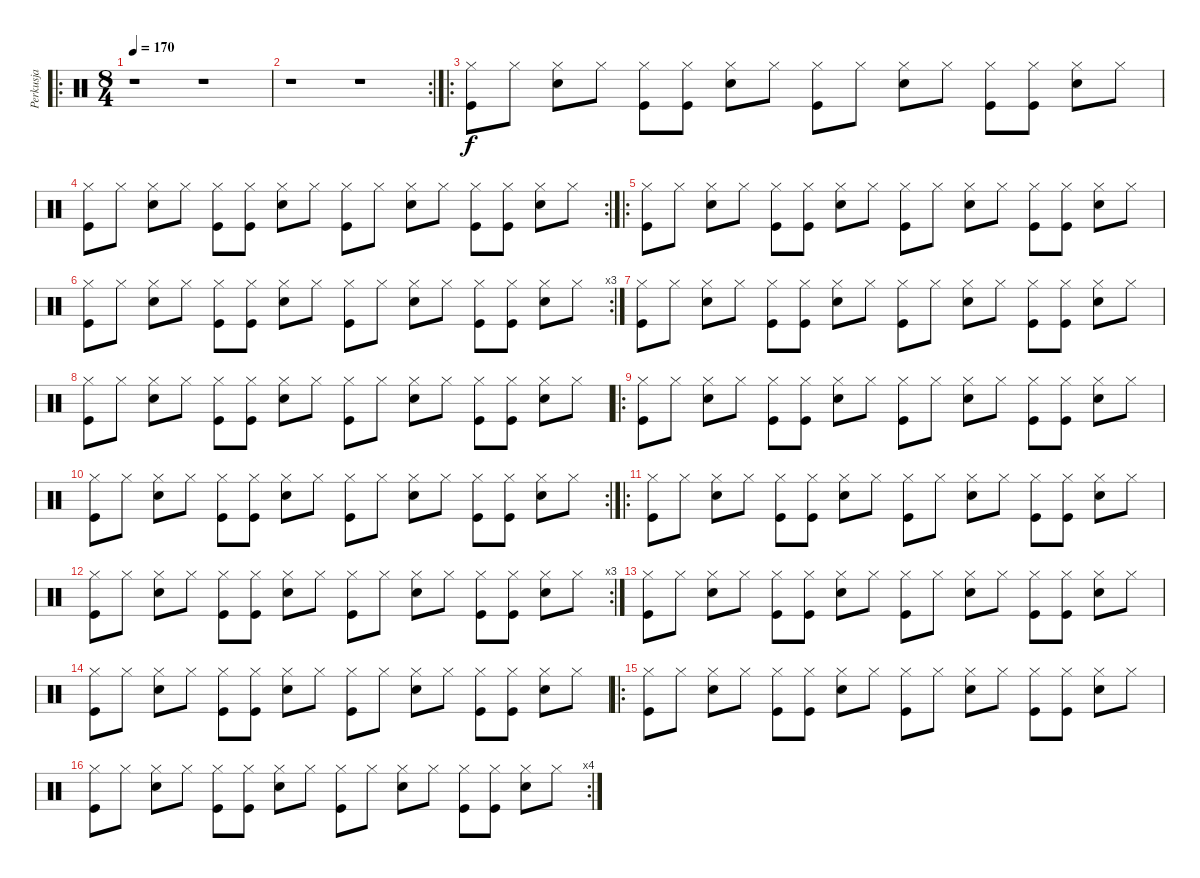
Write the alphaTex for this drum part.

\track ("Perkusja" "Perkusja") {instrument percussion}
\staff {score}
\articulation defaults
\ro
\ts (8 4)
\tempo 170
\clef neutral
\ks c
r.1{dy f} r.1 |
\rc 2
r.1 r.1 |
\ro
("Kick (hit)" "Hi-Hat (closed)").8 "Hi-Hat (closed)".8 ("Electric Snare (hit)" "Hi-Hat (closed)").8 "Hi-Hat (closed)".8 ("Kick (hit)" "Hi-Hat (closed)").8 ("Kick (hit)" "Hi-Hat (closed)").8 ("Electric Snare (hit)" "Hi-Hat (closed)").8 "Hi-Hat (closed)".8 ("Kick (hit)" "Hi-Hat (closed)").8 "Hi-Hat (closed)".8 ("Electric Snare (hit)" "Hi-Hat (closed)").8 "Hi-Hat (closed)".8 ("Kick (hit)" "Hi-Hat (closed)").8 ("Kick (hit)" "Hi-Hat (closed)").8 ("Electric Snare (hit)" "Hi-Hat (closed)").8 "Hi-Hat (closed)".8 |
\rc 2
("Kick (hit)" "Hi-Hat (closed)").8 "Hi-Hat (closed)".8 ("Electric Snare (hit)" "Hi-Hat (closed)").8 "Hi-Hat (closed)".8 ("Kick (hit)" "Hi-Hat (closed)").8 ("Kick (hit)" "Hi-Hat (closed)").8 ("Electric Snare (hit)" "Hi-Hat (closed)").8 "Hi-Hat (closed)".8 ("Kick (hit)" "Hi-Hat (closed)").8 "Hi-Hat (closed)".8 ("Electric Snare (hit)" "Hi-Hat (closed)").8 "Hi-Hat (closed)".8 ("Kick (hit)" "Hi-Hat (closed)").8 ("Kick (hit)" "Hi-Hat (closed)").8 ("Electric Snare (hit)" "Hi-Hat (closed)").8 "Hi-Hat (closed)".8 |
\ro
("Kick (hit)" "Hi-Hat (closed)").8 "Hi-Hat (closed)".8 ("Electric Snare (hit)" "Hi-Hat (closed)").8 "Hi-Hat (closed)".8 ("Kick (hit)" "Hi-Hat (closed)").8 ("Kick (hit)" "Hi-Hat (closed)").8 ("Electric Snare (hit)" "Hi-Hat (closed)").8 "Hi-Hat (closed)".8 ("Kick (hit)" "Hi-Hat (closed)").8 "Hi-Hat (closed)".8 ("Electric Snare (hit)" "Hi-Hat (closed)").8 "Hi-Hat (closed)".8 ("Kick (hit)" "Hi-Hat (closed)").8 ("Kick (hit)" "Hi-Hat (closed)").8 ("Electric Snare (hit)" "Hi-Hat (closed)").8 "Hi-Hat (closed)".8 |
\rc 3
("Kick (hit)" "Hi-Hat (closed)").8 "Hi-Hat (closed)".8 ("Electric Snare (hit)" "Hi-Hat (closed)").8 "Hi-Hat (closed)".8 ("Kick (hit)" "Hi-Hat (closed)").8 ("Kick (hit)" "Hi-Hat (closed)").8 ("Electric Snare (hit)" "Hi-Hat (closed)").8 "Hi-Hat (closed)".8 ("Kick (hit)" "Hi-Hat (closed)").8 "Hi-Hat (closed)".8 ("Electric Snare (hit)" "Hi-Hat (closed)").8 "Hi-Hat (closed)".8 ("Kick (hit)" "Hi-Hat (closed)").8 ("Kick (hit)" "Hi-Hat (closed)").8 ("Electric Snare (hit)" "Hi-Hat (closed)").8 "Hi-Hat (closed)".8 |
("Kick (hit)" "Hi-Hat (closed)").8 "Hi-Hat (closed)".8 ("Electric Snare (hit)" "Hi-Hat (closed)").8 "Hi-Hat (closed)".8 ("Kick (hit)" "Hi-Hat (closed)").8 ("Kick (hit)" "Hi-Hat (closed)").8 ("Electric Snare (hit)" "Hi-Hat (closed)").8 "Hi-Hat (closed)".8 ("Kick (hit)" "Hi-Hat (closed)").8 "Hi-Hat (closed)".8 ("Electric Snare (hit)" "Hi-Hat (closed)").8 "Hi-Hat (closed)".8 ("Kick (hit)" "Hi-Hat (closed)").8 ("Kick (hit)" "Hi-Hat (closed)").8 ("Electric Snare (hit)" "Hi-Hat (closed)").8 "Hi-Hat (closed)".8 |
("Kick (hit)" "Hi-Hat (closed)").8 "Hi-Hat (closed)".8 ("Electric Snare (hit)" "Hi-Hat (closed)").8 "Hi-Hat (closed)".8 ("Kick (hit)" "Hi-Hat (closed)").8 ("Kick (hit)" "Hi-Hat (closed)").8 ("Electric Snare (hit)" "Hi-Hat (closed)").8 "Hi-Hat (closed)".8 ("Kick (hit)" "Hi-Hat (closed)").8 "Hi-Hat (closed)".8 ("Electric Snare (hit)" "Hi-Hat (closed)").8 "Hi-Hat (closed)".8 ("Kick (hit)" "Hi-Hat (closed)").8 ("Kick (hit)" "Hi-Hat (closed)").8 ("Electric Snare (hit)" "Hi-Hat (closed)").8 "Hi-Hat (closed)".8 |
\ro
("Kick (hit)" "Hi-Hat (closed)").8 "Hi-Hat (closed)".8 ("Electric Snare (hit)" "Hi-Hat (closed)").8 "Hi-Hat (closed)".8 ("Kick (hit)" "Hi-Hat (closed)").8 ("Kick (hit)" "Hi-Hat (closed)").8 ("Electric Snare (hit)" "Hi-Hat (closed)").8 "Hi-Hat (closed)".8 ("Kick (hit)" "Hi-Hat (closed)").8 "Hi-Hat (closed)".8 ("Electric Snare (hit)" "Hi-Hat (closed)").8 "Hi-Hat (closed)".8 ("Kick (hit)" "Hi-Hat (closed)").8 ("Kick (hit)" "Hi-Hat (closed)").8 ("Electric Snare (hit)" "Hi-Hat (closed)").8 "Hi-Hat (closed)".8 |
\rc 2
("Kick (hit)" "Hi-Hat (closed)").8 "Hi-Hat (closed)".8 ("Electric Snare (hit)" "Hi-Hat (closed)").8 "Hi-Hat (closed)".8 ("Kick (hit)" "Hi-Hat (closed)").8 ("Kick (hit)" "Hi-Hat (closed)").8 ("Electric Snare (hit)" "Hi-Hat (closed)").8 "Hi-Hat (closed)".8 ("Kick (hit)" "Hi-Hat (closed)").8 "Hi-Hat (closed)".8 ("Electric Snare (hit)" "Hi-Hat (closed)").8 "Hi-Hat (closed)".8 ("Kick (hit)" "Hi-Hat (closed)").8 ("Kick (hit)" "Hi-Hat (closed)").8 ("Electric Snare (hit)" "Hi-Hat (closed)").8 "Hi-Hat (closed)".8 |
\ro
("Kick (hit)" "Hi-Hat (closed)").8 "Hi-Hat (closed)".8 ("Electric Snare (hit)" "Hi-Hat (closed)").8 "Hi-Hat (closed)".8 ("Kick (hit)" "Hi-Hat (closed)").8 ("Kick (hit)" "Hi-Hat (closed)").8 ("Electric Snare (hit)" "Hi-Hat (closed)").8 "Hi-Hat (closed)".8 ("Kick (hit)" "Hi-Hat (closed)").8 "Hi-Hat (closed)".8 ("Electric Snare (hit)" "Hi-Hat (closed)").8 "Hi-Hat (closed)".8 ("Kick (hit)" "Hi-Hat (closed)").8 ("Kick (hit)" "Hi-Hat (closed)").8 ("Electric Snare (hit)" "Hi-Hat (closed)").8 "Hi-Hat (closed)".8 |
\rc 3
("Kick (hit)" "Hi-Hat (closed)").8 "Hi-Hat (closed)".8 ("Electric Snare (hit)" "Hi-Hat (closed)").8 "Hi-Hat (closed)".8 ("Kick (hit)" "Hi-Hat (closed)").8 ("Kick (hit)" "Hi-Hat (closed)").8 ("Electric Snare (hit)" "Hi-Hat (closed)").8 "Hi-Hat (closed)".8 ("Kick (hit)" "Hi-Hat (closed)").8 "Hi-Hat (closed)".8 ("Electric Snare (hit)" "Hi-Hat (closed)").8 "Hi-Hat (closed)".8 ("Kick (hit)" "Hi-Hat (closed)").8 ("Kick (hit)" "Hi-Hat (closed)").8 ("Electric Snare (hit)" "Hi-Hat (closed)").8 "Hi-Hat (closed)".8 |
("Kick (hit)" "Hi-Hat (closed)").8 "Hi-Hat (closed)".8 ("Electric Snare (hit)" "Hi-Hat (closed)").8 "Hi-Hat (closed)".8 ("Kick (hit)" "Hi-Hat (closed)").8 ("Kick (hit)" "Hi-Hat (closed)").8 ("Electric Snare (hit)" "Hi-Hat (closed)").8 "Hi-Hat (closed)".8 ("Kick (hit)" "Hi-Hat (closed)").8 "Hi-Hat (closed)".8 ("Electric Snare (hit)" "Hi-Hat (closed)").8 "Hi-Hat (closed)".8 ("Kick (hit)" "Hi-Hat (closed)").8 ("Kick (hit)" "Hi-Hat (closed)").8 ("Electric Snare (hit)" "Hi-Hat (closed)").8 "Hi-Hat (closed)".8 |
("Kick (hit)" "Hi-Hat (closed)").8 "Hi-Hat (closed)".8 ("Electric Snare (hit)" "Hi-Hat (closed)").8 "Hi-Hat (closed)".8 ("Kick (hit)" "Hi-Hat (closed)").8 ("Kick (hit)" "Hi-Hat (closed)").8 ("Electric Snare (hit)" "Hi-Hat (closed)").8 "Hi-Hat (closed)".8 ("Kick (hit)" "Hi-Hat (closed)").8 "Hi-Hat (closed)".8 ("Electric Snare (hit)" "Hi-Hat (closed)").8 "Hi-Hat (closed)".8 ("Kick (hit)" "Hi-Hat (closed)").8 ("Kick (hit)" "Hi-Hat (closed)").8 ("Electric Snare (hit)" "Hi-Hat (closed)").8 "Hi-Hat (closed)".8 |
\ro
("Kick (hit)" "Hi-Hat (closed)").8 "Hi-Hat (closed)".8 ("Electric Snare (hit)" "Hi-Hat (closed)").8 "Hi-Hat (closed)".8 ("Kick (hit)" "Hi-Hat (closed)").8 ("Kick (hit)" "Hi-Hat (closed)").8 ("Electric Snare (hit)" "Hi-Hat (closed)").8 "Hi-Hat (closed)".8 ("Kick (hit)" "Hi-Hat (closed)").8 "Hi-Hat (closed)".8 ("Electric Snare (hit)" "Hi-Hat (closed)").8 "Hi-Hat (closed)".8 ("Kick (hit)" "Hi-Hat (closed)").8 ("Kick (hit)" "Hi-Hat (closed)").8 ("Electric Snare (hit)" "Hi-Hat (closed)").8 "Hi-Hat (closed)".8 |
\rc 4
("Kick (hit)" "Hi-Hat (closed)").8 "Hi-Hat (closed)".8 ("Electric Snare (hit)" "Hi-Hat (closed)").8 "Hi-Hat (closed)".8 ("Kick (hit)" "Hi-Hat (closed)").8 ("Kick (hit)" "Hi-Hat (closed)").8 ("Electric Snare (hit)" "Hi-Hat (closed)").8 "Hi-Hat (closed)".8 ("Kick (hit)" "Hi-Hat (closed)").8 "Hi-Hat (closed)".8 ("Electric Snare (hit)" "Hi-Hat (closed)").8 "Hi-Hat (closed)".8 ("Kick (hit)" "Hi-Hat (closed)").8 ("Kick (hit)" "Hi-Hat (closed)").8 ("Electric Snare (hit)" "Hi-Hat (closed)").8 "Hi-Hat (closed)".8
